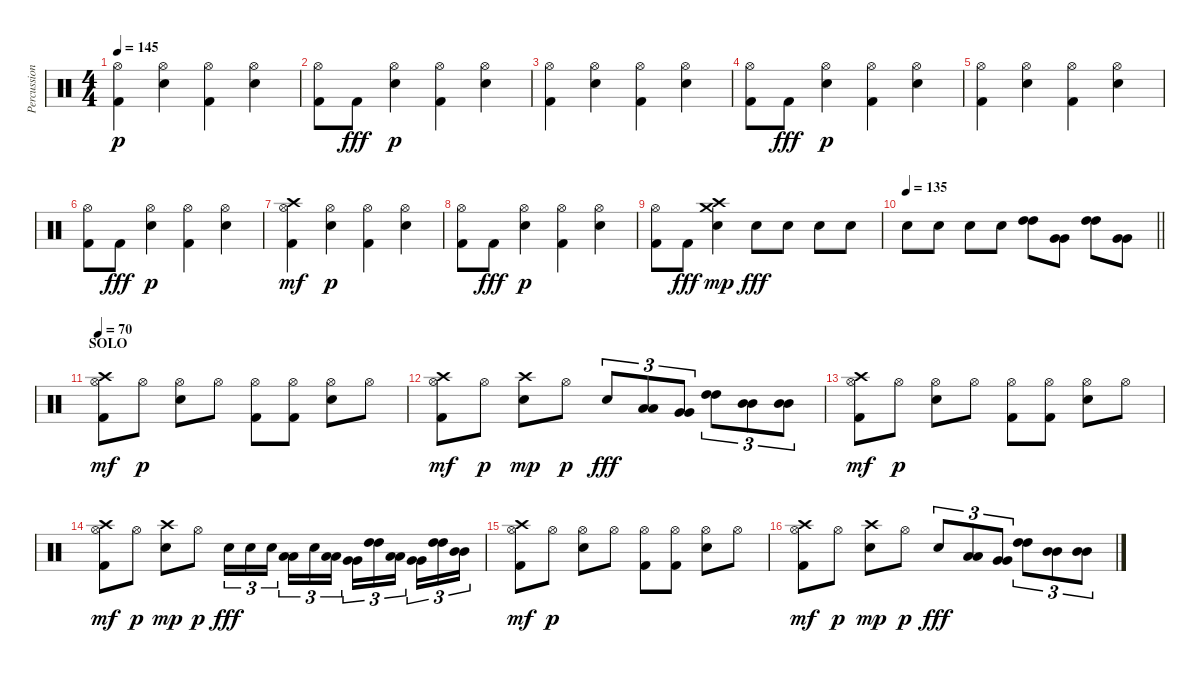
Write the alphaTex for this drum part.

\track ("Percussions" "Percussion") {instrument percussion}
\staff {score}
\articulation defaults
\ts (4 4)
\tempo 145
\clef neutral
\ks c
("Kick (hit) 2" "Hi-Hat (open)").4{dy p} ("Snare (hit) 2" "Hi-Hat (open)").4 ("Kick (hit) 2" "Hi-Hat (open)").4 ("Snare (hit) 2" "Hi-Hat (open)").4 |
("Kick (hit) 2" "Hi-Hat (open)").8 "Kick (hit) 2".8{dy fff} ("Snare (hit) 2" "Hi-Hat (open)").4{dy p} ("Kick (hit) 2" "Hi-Hat (open)").4 ("Snare (hit) 2" "Hi-Hat (open)").4 |
("Kick (hit) 2" "Hi-Hat (open)").4 ("Snare (hit) 2" "Hi-Hat (open)").4 ("Kick (hit) 2" "Hi-Hat (open)").4 ("Snare (hit) 2" "Hi-Hat (open)").4 |
("Kick (hit) 2" "Hi-Hat (open)").8 "Kick (hit) 2".8{dy fff} ("Snare (hit) 2" "Hi-Hat (open)").4{dy p} ("Kick (hit) 2" "Hi-Hat (open)").4 ("Snare (hit) 2" "Hi-Hat (open)").4 |
("Kick (hit) 2" "Hi-Hat (open)").4 ("Snare (hit) 2" "Hi-Hat (open)").4 ("Kick (hit) 2" "Hi-Hat (open)").4 ("Snare (hit) 2" "Hi-Hat (open)").4 |
("Kick (hit) 2" "Hi-Hat (open)").8 "Kick (hit) 2".8{dy fff} ("Snare (hit) 2" "Hi-Hat (open)").4{dy p} ("Kick (hit) 2" "Hi-Hat (open)").4 ("Snare (hit) 2" "Hi-Hat (open)").4 |
("Kick (hit) 2" "Hi-Hat (open)" "Crash high (hit)").4{dy mf} ("Snare (hit) 2" "Hi-Hat (open)").4{dy p} ("Kick (hit) 2" "Hi-Hat (open)").4 ("Snare (hit) 2" "Hi-Hat (open)").4 |
("Kick (hit) 2" "Hi-Hat (open)").8 "Kick (hit) 2".8{dy fff} ("Snare (hit) 2" "Hi-Hat (open)").4{dy p} ("Kick (hit) 2" "Hi-Hat (open)").4 ("Snare (hit) 2" "Hi-Hat (open)").4 |
("Kick (hit) 2" "Hi-Hat (open)").8 "Kick (hit) 2".8{dy fff} ("Snare (hit) 2" "Crash high (hit)" "Crash medium (hit)").4{dy mp} "Snare (hit) 2".8{dy fff} "Snare (hit) 2".8 "Snare (hit) 2".8 "Snare (hit) 2".8 |
\tempo 135
\barLineRight lightlight "Snare (hit) 2".8 "Snare (hit) 2".8 "Snare (hit) 2".8 "Snare (hit) 2".8
("High Tom (hit)" "High Tom (hit)").8 ("Very Low Tom (hit)" "Very Low Tom (hit)").8 ("High Tom (hit)" "High Tom (hit)").8 ("Very Low Tom (hit)" "Very Low Tom (hit)").8 |
\section ("" "SOLO")
\tempo 70
("Kick (hit) 2" "Hi-Hat (open)" "Crash high (hit)").8{dy mf} "Hi-Hat (open)".8{dy p} ("Snare (hit) 2" "Hi-Hat (open)").8 "Hi-Hat (open)".8 ("Kick (hit) 2" "Hi-Hat (open)").8 ("Kick (hit) 2" "Hi-Hat (open)").8 ("Snare (hit) 2" "Hi-Hat (open)").8 "Hi-Hat (open)".8 |
("Kick (hit) 2" "Hi-Hat (open)" "Crash high (hit)").8{dy mf} "Hi-Hat (open)".8{dy p} ("Snare (hit) 2" "Crash high (hit)").8{dy mp} "Hi-Hat (open)".8{dy p} "Snare (hit) 2".8{tu (3 2) dy fff} ("Low Tom (hit)" "Low Tom (hit)").8{tu (3 2)} ("Very Low Tom (hit)" "Very Low Tom (hit)").8{tu (3 2)} ("High Tom (hit)" "High Tom (hit)").8{tu (3 2)} ("Mid Tom (hit)" "Mid Tom (hit)").8{tu (3 2)} ("Mid Tom (hit)" "Mid Tom (hit)").8{tu (3 2)} |
("Kick (hit) 2" "Hi-Hat (open)" "Crash high (hit)").8{dy mf} "Hi-Hat (open)".8{dy p} ("Snare (hit) 2" "Hi-Hat (open)").8 "Hi-Hat (open)".8 ("Kick (hit) 2" "Hi-Hat (open)").8 ("Kick (hit) 2" "Hi-Hat (open)").8 ("Snare (hit) 2" "Hi-Hat (open)").8 "Hi-Hat (open)".8 |
("Kick (hit) 2" "Hi-Hat (open)" "Crash high (hit)").8{dy mf} "Hi-Hat (open)".8{dy p} ("Snare (hit) 2" "Crash high (hit)").8{dy mp} "Hi-Hat (open)".8{dy p} "Snare (hit) 2".16{tu (3 2) dy fff} "Snare (hit) 2".16{tu (3 2)} "Snare (hit) 2".16{tu (3 2) beam splitsecondary} ("Low Tom (hit)" "Low Tom (hit)").16{tu (3 2)} "Snare (hit) 2".16{tu (3 2)} ("Low Tom (hit)" "Low Tom (hit)").16{tu (3 2)} ("Very Low Tom (hit)" "Very Low Tom (hit)").16{tu (3 2)} ("High Tom (hit)" "High Tom (hit)").16{tu (3 2)} ("Low Tom (hit)" "Low Tom (hit)").16{tu (3 2) beam splitsecondary} ("Very Low Tom (hit)" "Very Low Tom (hit)").16{tu (3 2)} ("High Tom (hit)" "High Tom (hit)").16{tu (3 2)} ("Mid Tom (hit)" "Mid Tom (hit)").16{tu (3 2)} |
("Kick (hit) 2" "Hi-Hat (open)" "Crash high (hit)").8{dy mf} "Hi-Hat (open)".8{dy p} ("Snare (hit) 2" "Hi-Hat (open)").8 "Hi-Hat (open)".8 ("Kick (hit) 2" "Hi-Hat (open)").8 ("Kick (hit) 2" "Hi-Hat (open)").8 ("Snare (hit) 2" "Hi-Hat (open)").8 "Hi-Hat (open)".8 |
("Kick (hit) 2" "Hi-Hat (open)" "Crash high (hit)").8{dy mf} "Hi-Hat (open)".8{dy p} ("Snare (hit) 2" "Crash high (hit)").8{dy mp} "Hi-Hat (open)".8{dy p} "Snare (hit) 2".8{tu (3 2) dy fff} ("Low Tom (hit)" "Low Tom (hit)").8{tu (3 2)} ("Very Low Tom (hit)" "Very Low Tom (hit)").8{tu (3 2)} ("High Tom (hit)" "High Tom (hit)").8{tu (3 2)} ("Mid Tom (hit)" "Mid Tom (hit)").8{tu (3 2)} ("Mid Tom (hit)" "Mid Tom (hit)").8{tu (3 2)}
